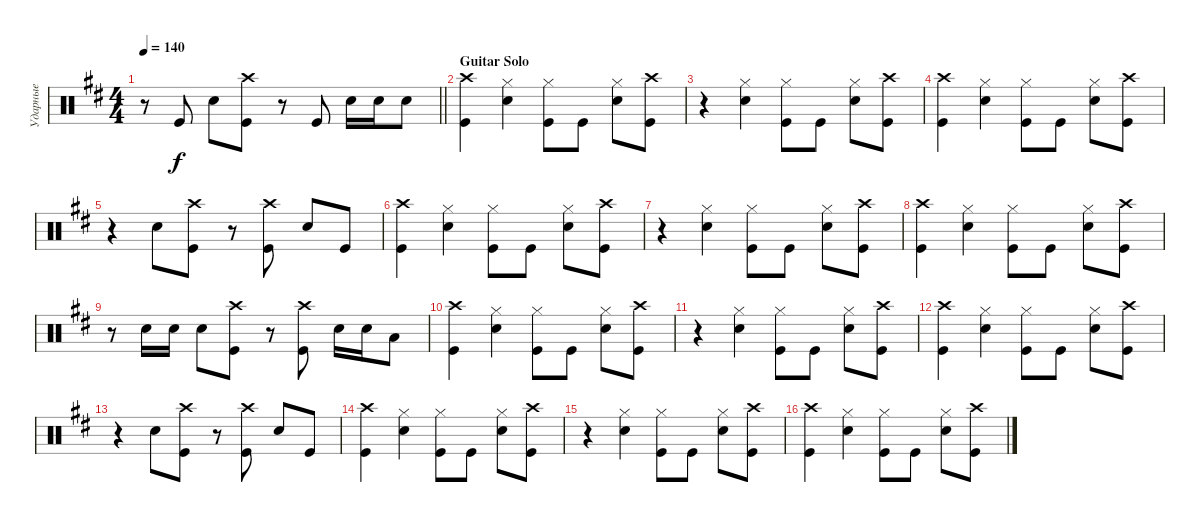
\track ("Ударные" "Ударные") {instrument percussion}
\staff {score}
\articulation defaults
\ts (4 4)
\tempo 140
\clef neutral
\barLineRight lightlight
\ks bminor
r.8{dy f} "Kick (hit)".8 "Snare (hit) 2".8 ("Kick (hit)" "Crash high (hit)").8 r.8 "Kick (hit)".8 "Snare (hit) 2".16 "Snare (hit) 2".16 "Snare (hit) 2".8 |
\section ("" "Guitar Solo")
("Kick (hit)" "Crash high (hit)").4 ("Hi-Hat (closed)" "Snare (hit) 2").4 ("Kick (hit)" "Hi-Hat (closed)").8 "Kick (hit)".8 ("Snare (hit) 2" "Hi-Hat (closed)").8 ("Kick (hit)" "Crash high (hit)").8 |
r.4 ("Hi-Hat (closed)" "Snare (hit) 2").4 ("Kick (hit)" "Hi-Hat (closed)").8 "Kick (hit)".8 ("Snare (hit) 2" "Hi-Hat (closed)").8 ("Kick (hit)" "Crash high (hit)").8 |
("Kick (hit)" "Crash high (hit)").4 ("Hi-Hat (closed)" "Snare (hit) 2").4 ("Kick (hit)" "Hi-Hat (closed)").8 "Kick (hit)".8 ("Snare (hit) 2" "Hi-Hat (closed)").8 ("Kick (hit)" "Crash high (hit)").8 |
r.4 "Snare (hit) 2".8 ("Kick (hit)" "Crash high (hit)").8 r.8 ("Kick (hit)" "Crash high (hit)").8 "Snare (hit) 2".8 "Kick (hit)".8 |
("Kick (hit)" "Crash high (hit)").4 ("Hi-Hat (closed)" "Snare (hit) 2").4 ("Kick (hit)" "Hi-Hat (closed)").8 "Kick (hit)".8 ("Snare (hit) 2" "Hi-Hat (closed)").8 ("Kick (hit)" "Crash high (hit)").8 |
r.4 ("Hi-Hat (closed)" "Snare (hit) 2").4 ("Kick (hit)" "Hi-Hat (closed)").8 "Kick (hit)".8 ("Snare (hit) 2" "Hi-Hat (closed)").8 ("Kick (hit)" "Crash high (hit)").8 |
("Kick (hit)" "Crash high (hit)").4 ("Hi-Hat (closed)" "Snare (hit) 2").4 ("Kick (hit)" "Hi-Hat (closed)").8 "Kick (hit)".8 ("Snare (hit) 2" "Hi-Hat (closed)").8 ("Kick (hit)" "Crash high (hit)").8 |
r.8 "Snare (hit) 2".16 "Snare (hit) 2".16 "Snare (hit) 2".8 ("Kick (hit)" "Crash high (hit)").8 r.8 ("Kick (hit)" "Crash high (hit)").8 "Snare (hit) 2".16 "Snare (hit) 2".16 "Low Tom (hit)".8 |
("Kick (hit)" "Crash high (hit)").4 ("Hi-Hat (closed)" "Snare (hit) 2").4 ("Kick (hit)" "Hi-Hat (closed)").8 "Kick (hit)".8 ("Snare (hit) 2" "Hi-Hat (closed)").8 ("Kick (hit)" "Crash high (hit)").8 |
r.4 ("Hi-Hat (closed)" "Snare (hit) 2").4 ("Kick (hit)" "Hi-Hat (closed)").8 "Kick (hit)".8 ("Snare (hit) 2" "Hi-Hat (closed)").8 ("Kick (hit)" "Crash high (hit)").8 |
("Kick (hit)" "Crash high (hit)").4 ("Hi-Hat (closed)" "Snare (hit) 2").4 ("Kick (hit)" "Hi-Hat (closed)").8 "Kick (hit)".8 ("Snare (hit) 2" "Hi-Hat (closed)").8 ("Kick (hit)" "Crash high (hit)").8 |
r.4 "Snare (hit) 2".8 ("Kick (hit)" "Crash high (hit)").8 r.8 ("Kick (hit)" "Crash high (hit)").8 "Snare (hit) 2".8 "Kick (hit)".8 |
("Kick (hit)" "Crash high (hit)").4 ("Hi-Hat (closed)" "Snare (hit) 2").4 ("Kick (hit)" "Hi-Hat (closed)").8 "Kick (hit)".8 ("Snare (hit) 2" "Hi-Hat (closed)").8 ("Kick (hit)" "Crash high (hit)").8 |
r.4 ("Hi-Hat (closed)" "Snare (hit) 2").4 ("Kick (hit)" "Hi-Hat (closed)").8 "Kick (hit)".8 ("Snare (hit) 2" "Hi-Hat (closed)").8 ("Kick (hit)" "Crash high (hit)").8 |
("Kick (hit)" "Crash high (hit)").4 ("Hi-Hat (closed)" "Snare (hit) 2").4 ("Kick (hit)" "Hi-Hat (closed)").8 "Kick (hit)".8 ("Snare (hit) 2" "Hi-Hat (closed)").8 ("Kick (hit)" "Crash high (hit)").8
